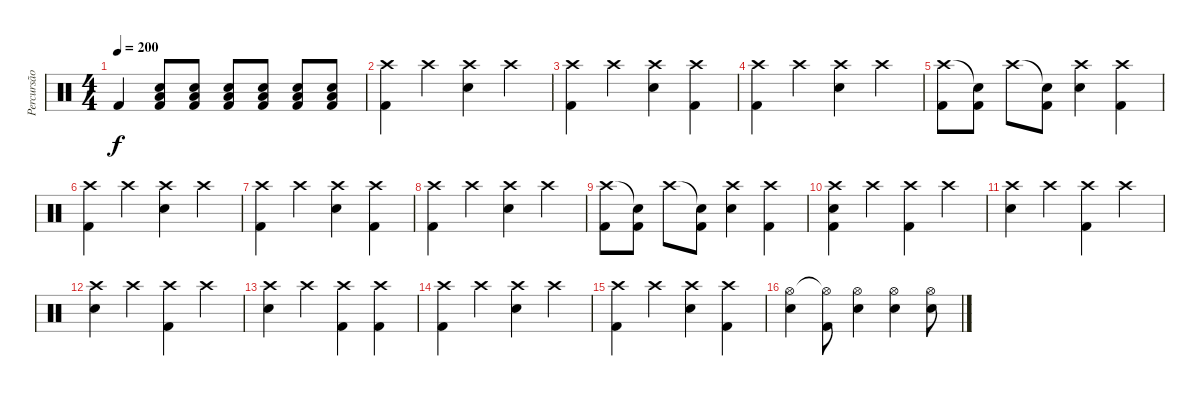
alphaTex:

\track ("Percursão" "Percursão") {instrument percussion}
\staff {score}
\articulation defaults
\ts (4 4)
\tempo 200
\clef neutral
\ks c "Kick (hit) 2".4{dy f}
("Electric Snare (hit)" "Low Tom (hit)" "Kick (hit) 2").8 ("Electric Snare (hit)" "Low Tom (hit)" "Kick (hit) 2").8 ("Electric Snare (hit)" "Low Tom (hit)" "Kick (hit) 2").8 ("Electric Snare (hit)" "Low Tom (hit)" "Kick (hit) 2").8 ("Electric Snare (hit)" "Low Tom (hit)" "Kick (hit) 2").8 ("Electric Snare (hit)" "Low Tom (hit)" "Kick (hit) 2").8 |
("Crash high (hit)" "Kick (hit) 2").4 "Crash high (hit)".4 ("Crash high (hit)" "Electric Snare (hit)").4 "Crash high (hit)".4 |
("Crash high (hit)" "Kick (hit) 2").4 "Crash high (hit)".4 ("Crash high (hit)" "Electric Snare (hit)").4 ("Crash high (hit)" "Kick (hit) 2").4 |
("Crash high (hit)" "Kick (hit) 2").4 "Crash high (hit)".4 ("Crash high (hit)" "Electric Snare (hit)").4 "Crash high (hit)".4 |
("Crash high (hit)" "Kick (hit) 2").8 ("Snare (hit)"{t} "Kick (hit) 2").8 "Crash high (hit)".8 ("Snare (hit)"{t} "Kick (hit) 2").8 ("Crash high (hit)" "Electric Snare (hit)").4 ("Crash high (hit)" "Kick (hit) 2").4 |
("Crash high (hit)" "Kick (hit) 2").4 "Crash high (hit)".4 ("Crash high (hit)" "Electric Snare (hit)").4 "Crash high (hit)".4 |
("Crash high (hit)" "Kick (hit) 2").4 "Crash high (hit)".4 ("Crash high (hit)" "Electric Snare (hit)").4 ("Crash high (hit)" "Kick (hit) 2").4 |
("Crash high (hit)" "Kick (hit) 2").4 "Crash high (hit)".4 ("Crash high (hit)" "Electric Snare (hit)").4 "Crash high (hit)".4 |
("Crash high (hit)" "Kick (hit) 2").8 ("Snare (hit)"{t} "Kick (hit) 2").8 "Crash high (hit)".8 ("Snare (hit)"{t} "Kick (hit) 2").8 ("Crash high (hit)" "Electric Snare (hit)").4 ("Crash high (hit)" "Kick (hit) 2").4 |
("Crash high (hit)" "Electric Snare (hit)" "Kick (hit) 2").4 "Crash high (hit)".4 ("Crash high (hit)" "Kick (hit) 2").4 "Crash high (hit)".4 |
("Crash high (hit)" "Electric Snare (hit)").4 "Crash high (hit)".4 ("Crash high (hit)" "Kick (hit) 2").4 "Crash high (hit)".4 |
("Crash high (hit)" "Electric Snare (hit)").4 "Crash high (hit)".4 ("Crash high (hit)" "Kick (hit) 2").4 "Crash high (hit)".4 |
("Crash high (hit)" "Electric Snare (hit)").4 "Crash high (hit)".4 ("Crash high (hit)" "Kick (hit) 2").4 ("Crash high (hit)" "Kick (hit) 2").4 |
("Crash high (hit)" "Kick (hit) 2").4 "Crash high (hit)".4 ("Crash high (hit)" "Electric Snare (hit)").4 "Crash high (hit)".4 |
("Crash high (hit)" "Kick (hit) 2").4 "Crash high (hit)".4 ("Crash high (hit)" "Electric Snare (hit)").4 ("Crash high (hit)" "Kick (hit) 2").4 |
("Hi-Hat (open)" "Electric Snare (hit)").4 ("Hi-Hat (open)"{t} "Kick (hit) 2").8 ("Hi-Hat (open)" "Electric Snare (hit)").4 ("Hi-Hat (open)" "Electric Snare (hit)").4 ("Hi-Hat (open)" "Electric Snare (hit)").8
